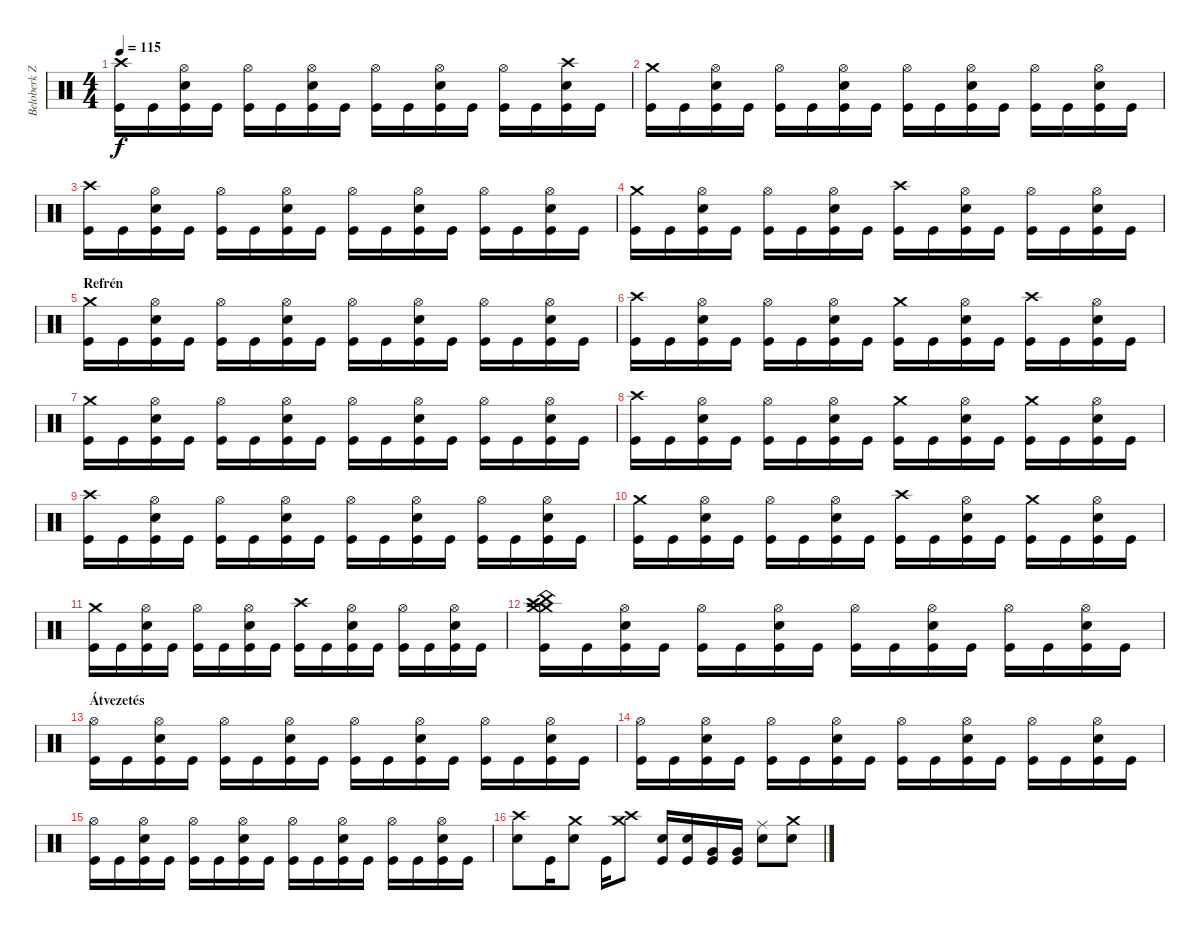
\track ("Beloberk Zsolt /dob/" "Beloberk Z") {instrument percussion}
\staff {score}
\articulation defaults
\ts (4 4)
\tempo 115
\clef neutral
\ks c
("Crash high (hit)" "Kick (hit)").16{dy f} "Kick (hit)".16 ("Hi-Hat (open)" "Electric Snare (hit)" "Kick (hit)").16 "Kick (hit)".16 ("Hi-Hat (open)" "Kick (hit)").16 "Kick (hit)".16 ("Hi-Hat (open)" "Electric Snare (hit)" "Kick (hit)").16 "Kick (hit)".16 ("Hi-Hat (open)" "Kick (hit)").16 "Kick (hit)".16 ("Hi-Hat (open)" "Electric Snare (hit)" "Kick (hit)").16 "Kick (hit)".16 ("Hi-Hat (open)" "Kick (hit)").16 "Kick (hit)".16 ("Crash high (hit)" "Electric Snare (hit)" "Kick (hit)").16 "Kick (hit)".16 |
("Crash medium (hit)" "Kick (hit)").16 "Kick (hit)".16 ("Hi-Hat (open)" "Electric Snare (hit)" "Kick (hit)").16 "Kick (hit)".16 ("Hi-Hat (open)" "Kick (hit)").16 "Kick (hit)".16 ("Hi-Hat (open)" "Electric Snare (hit)" "Kick (hit)").16 "Kick (hit)".16 ("Hi-Hat (open)" "Kick (hit)").16 "Kick (hit)".16 ("Hi-Hat (open)" "Electric Snare (hit)" "Kick (hit)").16 "Kick (hit)".16 ("Hi-Hat (open)" "Kick (hit)").16 "Kick (hit)".16 ("Hi-Hat (open)" "Electric Snare (hit)" "Kick (hit)").16 "Kick (hit)".16 |
("Crash high (hit)" "Kick (hit)").16 "Kick (hit)".16 ("Hi-Hat (open)" "Electric Snare (hit)" "Kick (hit)").16 "Kick (hit)".16 ("Hi-Hat (open)" "Kick (hit)").16 "Kick (hit)".16 ("Hi-Hat (open)" "Electric Snare (hit)" "Kick (hit)").16 "Kick (hit)".16 ("Hi-Hat (open)" "Kick (hit)").16 "Kick (hit)".16 ("Hi-Hat (open)" "Electric Snare (hit)" "Kick (hit)").16 "Kick (hit)".16 ("Hi-Hat (open)" "Kick (hit)").16 "Kick (hit)".16 ("Hi-Hat (open)" "Electric Snare (hit)" "Kick (hit)").16 "Kick (hit)".16 |
("Crash medium (hit)" "Kick (hit)").16 "Kick (hit)".16 ("Hi-Hat (open)" "Electric Snare (hit)" "Kick (hit)").16 "Kick (hit)".16 ("Hi-Hat (open)" "Kick (hit)").16 "Kick (hit)".16 ("Hi-Hat (open)" "Electric Snare (hit)" "Kick (hit)").16 "Kick (hit)".16 ("Crash high (hit)" "Kick (hit)").16 "Kick (hit)".16 ("Hi-Hat (open)" "Electric Snare (hit)" "Kick (hit)").16 "Kick (hit)".16 ("Hi-Hat (open)" "Kick (hit)").16 "Kick (hit)".16 ("Hi-Hat (open)" "Electric Snare (hit)" "Kick (hit)").16 "Kick (hit)".16 |
\section ("" "Refrén")
("Crash medium (hit)" "Kick (hit)").16 "Kick (hit)".16 ("Hi-Hat (open)" "Electric Snare (hit)" "Kick (hit)").16 "Kick (hit)".16 ("Hi-Hat (open)" "Kick (hit)").16 "Kick (hit)".16 ("Hi-Hat (open)" "Electric Snare (hit)" "Kick (hit)").16 "Kick (hit)".16 ("Hi-Hat (open)" "Kick (hit)").16 "Kick (hit)".16 ("Hi-Hat (open)" "Electric Snare (hit)" "Kick (hit)").16 "Kick (hit)".16 ("Hi-Hat (open)" "Kick (hit)").16 "Kick (hit)".16 ("Hi-Hat (open)" "Electric Snare (hit)" "Kick (hit)").16 "Kick (hit)".16 |
("Crash high (hit)" "Kick (hit)").16 "Kick (hit)".16 ("Hi-Hat (open)" "Electric Snare (hit)" "Kick (hit)").16 "Kick (hit)".16 ("Hi-Hat (open)" "Kick (hit)").16 "Kick (hit)".16 ("Hi-Hat (open)" "Electric Snare (hit)" "Kick (hit)").16 "Kick (hit)".16 ("Crash medium (hit)" "Kick (hit)").16 "Kick (hit)".16 ("Hi-Hat (open)" "Electric Snare (hit)" "Kick (hit)").16 "Kick (hit)".16 ("Crash high (hit)" "Kick (hit)").16 "Kick (hit)".16 ("Hi-Hat (open)" "Electric Snare (hit)" "Kick (hit)").16 "Kick (hit)".16 |
("Crash medium (hit)" "Kick (hit)").16 "Kick (hit)".16 ("Hi-Hat (open)" "Electric Snare (hit)" "Kick (hit)").16 "Kick (hit)".16 ("Hi-Hat (open)" "Kick (hit)").16 "Kick (hit)".16 ("Hi-Hat (open)" "Electric Snare (hit)" "Kick (hit)").16 "Kick (hit)".16 ("Hi-Hat (open)" "Kick (hit)").16 "Kick (hit)".16 ("Hi-Hat (open)" "Electric Snare (hit)" "Kick (hit)").16 "Kick (hit)".16 ("Hi-Hat (open)" "Kick (hit)").16 "Kick (hit)".16 ("Hi-Hat (open)" "Electric Snare (hit)" "Kick (hit)").16 "Kick (hit)".16 |
("Crash high (hit)" "Kick (hit)").16 "Kick (hit)".16 ("Hi-Hat (open)" "Electric Snare (hit)" "Kick (hit)").16 "Kick (hit)".16 ("Hi-Hat (open)" "Kick (hit)").16 "Kick (hit)".16 ("Hi-Hat (open)" "Electric Snare (hit)" "Kick (hit)").16 "Kick (hit)".16 ("Crash medium (hit)" "Kick (hit)").16 "Kick (hit)".16 ("Hi-Hat (open)" "Electric Snare (hit)" "Kick (hit)").16 "Kick (hit)".16 ("Crash medium (hit)" "Kick (hit)").16 "Kick (hit)".16 ("Hi-Hat (open)" "Electric Snare (hit)" "Kick (hit)").16 "Kick (hit)".16 |
("Crash high (hit)" "Kick (hit)").16 "Kick (hit)".16 ("Hi-Hat (open)" "Electric Snare (hit)" "Kick (hit)").16 "Kick (hit)".16 ("Hi-Hat (open)" "Kick (hit)").16 "Kick (hit)".16 ("Hi-Hat (open)" "Electric Snare (hit)" "Kick (hit)").16 "Kick (hit)".16 ("Hi-Hat (open)" "Kick (hit)").16 "Kick (hit)".16 ("Hi-Hat (open)" "Electric Snare (hit)" "Kick (hit)").16 "Kick (hit)".16 ("Hi-Hat (open)" "Kick (hit)").16 "Kick (hit)".16 ("Hi-Hat (open)" "Electric Snare (hit)" "Kick (hit)").16 "Kick (hit)".16 |
("Crash medium (hit)" "Kick (hit)").16 "Kick (hit)".16 ("Hi-Hat (open)" "Electric Snare (hit)" "Kick (hit)").16 "Kick (hit)".16 ("Hi-Hat (open)" "Kick (hit)").16 "Kick (hit)".16 ("Hi-Hat (open)" "Electric Snare (hit)" "Kick (hit)").16 "Kick (hit)".16 ("Crash high (hit)" "Kick (hit)").16 "Kick (hit)".16 ("Hi-Hat (open)" "Electric Snare (hit)" "Kick (hit)").16 "Kick (hit)".16 ("Crash medium (hit)" "Kick (hit)").16 "Kick (hit)".16 ("Hi-Hat (open)" "Electric Snare (hit)" "Kick (hit)").16 "Kick (hit)".16 |
("Crash medium (hit)" "Kick (hit)").16 "Kick (hit)".16 ("Hi-Hat (open)" "Electric Snare (hit)" "Kick (hit)").16 "Kick (hit)".16 ("Hi-Hat (open)" "Kick (hit)").16 "Kick (hit)".16 ("Hi-Hat (open)" "Electric Snare (hit)" "Kick (hit)").16 "Kick (hit)".16 ("Crash high (hit)" "Kick (hit)").16 "Kick (hit)".16 ("Hi-Hat (open)" "Electric Snare (hit)" "Kick (hit)").16 "Kick (hit)".16 ("Hi-Hat (open)" "Kick (hit)").16 "Kick (hit)".16 ("Hi-Hat (open)" "Electric Snare (hit)" "Kick (hit)").16 "Kick (hit)".16 |
("Crash medium (hit)" "Kick (hit)" "China (hit)" "Crash high (hit)" "Crash medium (hit)").16 "Kick (hit)".16 ("Hi-Hat (open)" "Electric Snare (hit)" "Kick (hit)").16 "Kick (hit)".16 ("Hi-Hat (open)" "Kick (hit)").16 "Kick (hit)".16 ("Hi-Hat (open)" "Electric Snare (hit)" "Kick (hit)").16 "Kick (hit)".16 ("Hi-Hat (open)" "Kick (hit)").16 "Kick (hit)".16 ("Hi-Hat (open)" "Electric Snare (hit)" "Kick (hit)").16 "Kick (hit)".16 ("Hi-Hat (open)" "Kick (hit)").16 "Kick (hit)".16 ("Hi-Hat (open)" "Electric Snare (hit)" "Kick (hit)").16 "Kick (hit)".16 |
\section ("" "Átvezetés")
("Hi-Hat (open)" "Kick (hit)").16 "Kick (hit)".16 ("Hi-Hat (open)" "Electric Snare (hit)" "Kick (hit)").16 "Kick (hit)".16 ("Hi-Hat (open)" "Kick (hit)").16 "Kick (hit)".16 ("Hi-Hat (open)" "Electric Snare (hit)" "Kick (hit)").16 "Kick (hit)".16 ("Hi-Hat (open)" "Kick (hit)").16 "Kick (hit)".16 ("Hi-Hat (open)" "Electric Snare (hit)" "Kick (hit)").16 "Kick (hit)".16 ("Hi-Hat (open)" "Kick (hit)").16 "Kick (hit)".16 ("Hi-Hat (open)" "Electric Snare (hit)" "Kick (hit)").16 "Kick (hit)".16 |
("Hi-Hat (open)" "Kick (hit)").16 "Kick (hit)".16 ("Hi-Hat (open)" "Electric Snare (hit)" "Kick (hit)").16 "Kick (hit)".16 ("Hi-Hat (open)" "Kick (hit)").16 "Kick (hit)".16 ("Hi-Hat (open)" "Electric Snare (hit)" "Kick (hit)").16 "Kick (hit)".16 ("Hi-Hat (open)" "Kick (hit)").16 "Kick (hit)".16 ("Hi-Hat (open)" "Electric Snare (hit)" "Kick (hit)").16 "Kick (hit)".16 ("Hi-Hat (open)" "Kick (hit)").16 "Kick (hit)".16 ("Hi-Hat (open)" "Electric Snare (hit)" "Kick (hit)").16 "Kick (hit)".16 |
("Hi-Hat (open)" "Kick (hit)").16 "Kick (hit)".16 ("Hi-Hat (open)" "Electric Snare (hit)" "Kick (hit)").16 "Kick (hit)".16 ("Hi-Hat (open)" "Kick (hit)").16 "Kick (hit)".16 ("Hi-Hat (open)" "Electric Snare (hit)" "Kick (hit)").16 "Kick (hit)".16 ("Hi-Hat (open)" "Kick (hit)").16 "Kick (hit)".16 ("Hi-Hat (open)" "Electric Snare (hit)" "Kick (hit)").16 "Kick (hit)".16 ("Hi-Hat (open)" "Kick (hit)").16 "Kick (hit)".16 ("Hi-Hat (open)" "Electric Snare (hit)" "Kick (hit)").16 "Kick (hit)".16 |
("Crash high (hit)" "Snare (hit) 2").8 "Kick (hit)".16 ("Crash medium (hit)" "Snare (hit) 2").8 "Kick (hit)".16 ("Crash medium (hit)" "Crash high (hit)").8 ("Snare (hit) 2" "Kick (hit)").16 ("Snare (hit) 2" "Kick (hit)").16 ("Very Low Tom (hit)" "Kick (hit)").16 ("Very Low Tom (hit)" "Kick (hit)").16 ("Ride (middle)" "Snare (hit) 2").8 ("Crash medium (hit)" "Snare (hit) 2").8
